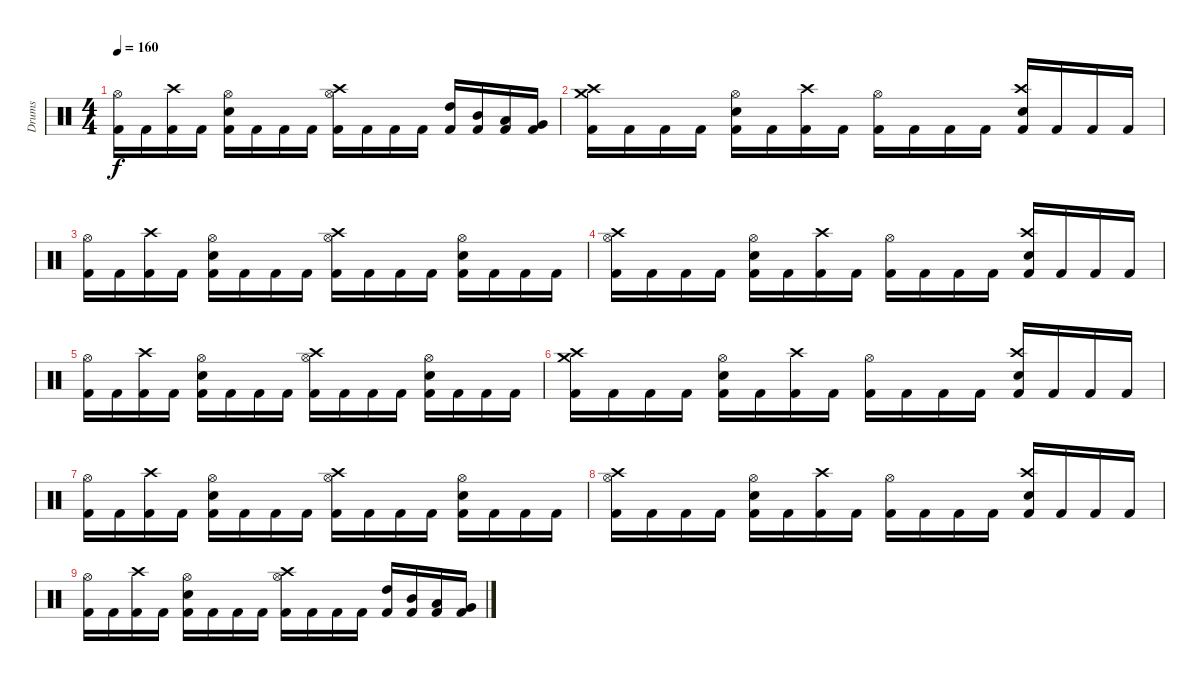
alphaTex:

\track ("Drums" "Drums") {instrument percussion}
\staff {score}
\articulation defaults
\ts (4 4)
\tempo 160
\clef neutral
\ks c
("Hi-Hat (open)" "Kick (hit) 2").16{dy f} "Kick (hit) 2".16 ("Crash high (hit)" "Kick (hit) 2").16 "Kick (hit) 2".16 ("Hi-Hat (open)" "Kick (hit) 2" "Snare (hit) 2").16 "Kick (hit) 2".16 "Kick (hit) 2".16 "Kick (hit) 2".16 ("Crash high (hit)" "Hi-Hat (open)" "Kick (hit) 2").16 "Kick (hit) 2".16 "Kick (hit) 2".16 "Kick (hit) 2".16 ("Kick (hit) 2" "High Tom (hit)").16 ("Kick (hit) 2" "Mid Tom (hit)").16 ("Kick (hit) 2" "Low Tom (hit)").16 ("Kick (hit) 2" "Very Low Tom (hit)").16 |
("Crash medium (hit)" "Crash high (hit)" "Kick (hit) 2").16{volume 7} "Kick (hit) 2".16 "Kick (hit) 2".16 "Kick (hit) 2".16 ("Hi-Hat (open)" "Kick (hit) 2" "Snare (hit) 2").16 "Kick (hit) 2".16 ("Crash high (hit)" "Kick (hit) 2").16 "Kick (hit) 2".16 ("Hi-Hat (open)" "Kick (hit) 2").16 "Kick (hit) 2".16 "Kick (hit) 2".16 "Kick (hit) 2".16 ("Crash high (hit)" "Kick (hit) 2" "Snare (hit) 2").16 "Kick (hit) 2".16 "Kick (hit) 2".16 "Kick (hit) 2".16 |
("Hi-Hat (open)" "Kick (hit) 2").16 "Kick (hit) 2".16 ("Crash high (hit)" "Kick (hit) 2").16 "Kick (hit) 2".16 ("Hi-Hat (open)" "Kick (hit) 2" "Snare (hit) 2").16 "Kick (hit) 2".16 "Kick (hit) 2".16 "Kick (hit) 2".16 ("Crash high (hit)" "Hi-Hat (open)" "Kick (hit) 2").16 "Kick (hit) 2".16 "Kick (hit) 2".16 "Kick (hit) 2".16 ("Hi-Hat (open)" "Kick (hit) 2" "Snare (hit) 2").16 "Kick (hit) 2".16 "Kick (hit) 2".16 "Kick (hit) 2".16 |
("Crash high (hit)" "Hi-Hat (open)" "Kick (hit) 2").16 "Kick (hit) 2".16 "Kick (hit) 2".16 "Kick (hit) 2".16 ("Hi-Hat (open)" "Kick (hit) 2" "Snare (hit) 2").16 "Kick (hit) 2".16 ("Crash high (hit)" "Kick (hit) 2").16 "Kick (hit) 2".16 ("Hi-Hat (open)" "Kick (hit) 2").16 "Kick (hit) 2".16 "Kick (hit) 2".16 "Kick (hit) 2".16 ("Crash high (hit)" "Kick (hit) 2" "Snare (hit) 2").16 "Kick (hit) 2".16 "Kick (hit) 2".16 "Kick (hit) 2".16 |
("Hi-Hat (open)" "Kick (hit) 2").16 "Kick (hit) 2".16 ("Crash high (hit)" "Kick (hit) 2").16 "Kick (hit) 2".16 ("Hi-Hat (open)" "Kick (hit) 2" "Snare (hit) 2").16 "Kick (hit) 2".16 "Kick (hit) 2".16 "Kick (hit) 2".16 ("Crash high (hit)" "Hi-Hat (open)" "Kick (hit) 2").16 "Kick (hit) 2".16 "Kick (hit) 2".16 "Kick (hit) 2".16 ("Hi-Hat (open)" "Kick (hit) 2" "Snare (hit) 2").16 "Kick (hit) 2".16 "Kick (hit) 2".16 "Kick (hit) 2".16 |
("Crash medium (hit)" "Crash high (hit)" "Kick (hit) 2").16{volume 0} "Kick (hit) 2".16 "Kick (hit) 2".16 "Kick (hit) 2".16 ("Hi-Hat (open)" "Kick (hit) 2" "Snare (hit) 2").16 "Kick (hit) 2".16 ("Crash high (hit)" "Kick (hit) 2").16 "Kick (hit) 2".16 ("Hi-Hat (open)" "Kick (hit) 2").16 "Kick (hit) 2".16 "Kick (hit) 2".16 "Kick (hit) 2".16 ("Crash high (hit)" "Kick (hit) 2" "Snare (hit) 2").16 "Kick (hit) 2".16 "Kick (hit) 2".16 "Kick (hit) 2".16 |
("Hi-Hat (open)" "Kick (hit) 2").16 "Kick (hit) 2".16 ("Crash high (hit)" "Kick (hit) 2").16 "Kick (hit) 2".16 ("Hi-Hat (open)" "Kick (hit) 2" "Snare (hit) 2").16 "Kick (hit) 2".16 "Kick (hit) 2".16 "Kick (hit) 2".16 ("Crash high (hit)" "Hi-Hat (open)" "Kick (hit) 2").16 "Kick (hit) 2".16 "Kick (hit) 2".16 "Kick (hit) 2".16 ("Hi-Hat (open)" "Kick (hit) 2" "Snare (hit) 2").16 "Kick (hit) 2".16 "Kick (hit) 2".16 "Kick (hit) 2".16 |
("Crash high (hit)" "Hi-Hat (open)" "Kick (hit) 2").16 "Kick (hit) 2".16 "Kick (hit) 2".16 "Kick (hit) 2".16 ("Hi-Hat (open)" "Kick (hit) 2" "Snare (hit) 2").16 "Kick (hit) 2".16 ("Crash high (hit)" "Kick (hit) 2").16 "Kick (hit) 2".16 ("Hi-Hat (open)" "Kick (hit) 2").16 "Kick (hit) 2".16 "Kick (hit) 2".16 "Kick (hit) 2".16 ("Crash high (hit)" "Kick (hit) 2" "Snare (hit) 2").16 "Kick (hit) 2".16 "Kick (hit) 2".16 "Kick (hit) 2".16 |
("Hi-Hat (open)" "Kick (hit) 2").16 "Kick (hit) 2".16 ("Crash high (hit)" "Kick (hit) 2").16 "Kick (hit) 2".16 ("Hi-Hat (open)" "Kick (hit) 2" "Snare (hit) 2").16 "Kick (hit) 2".16 "Kick (hit) 2".16 "Kick (hit) 2".16 ("Crash high (hit)" "Hi-Hat (open)" "Kick (hit) 2").16 "Kick (hit) 2".16 "Kick (hit) 2".16 "Kick (hit) 2".16 ("Kick (hit) 2" "High Tom (hit)").16 ("Kick (hit) 2" "Mid Tom (hit)").16 ("Kick (hit) 2" "Low Tom (hit)").16 ("Kick (hit) 2" "Very Low Tom (hit)").16
